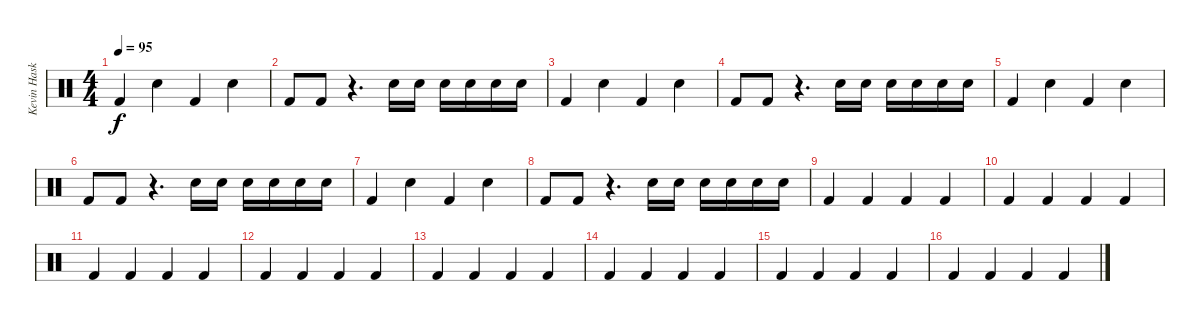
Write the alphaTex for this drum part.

\track ("Kevin Haskins" "Kevin Hask") {instrument percussion}
\staff {score}
\articulation defaults
\ts (4 4)
\tempo 95
\clef neutral
\ks c "Kick (hit) 2".4{dy f} "Electric Snare (hit)".4 "Kick (hit) 2".4 "Electric Snare (hit)".4
|
"Kick (hit) 2".8 "Kick (hit) 2".8 r.4{d} "Electric Snare (hit)".16 "Electric Snare (hit)".16 "Electric Snare (hit)".16 "Electric Snare (hit)".16 "Electric Snare (hit)".16 "Electric Snare (hit)".16 |
"Kick (hit) 2".4 "Electric Snare (hit)".4 "Kick (hit) 2".4 "Electric Snare (hit)".4 |
"Kick (hit) 2".8 "Kick (hit) 2".8 r.4{d} "Electric Snare (hit)".16 "Electric Snare (hit)".16 "Electric Snare (hit)".16 "Electric Snare (hit)".16 "Electric Snare (hit)".16 "Electric Snare (hit)".16 |
"Kick (hit) 2".4 "Electric Snare (hit)".4 "Kick (hit) 2".4 "Electric Snare (hit)".4 |
"Kick (hit) 2".8 "Kick (hit) 2".8 r.4{d} "Electric Snare (hit)".16 "Electric Snare (hit)".16 "Electric Snare (hit)".16 "Electric Snare (hit)".16 "Electric Snare (hit)".16 "Electric Snare (hit)".16 |
"Kick (hit) 2".4 "Electric Snare (hit)".4 "Kick (hit) 2".4 "Electric Snare (hit)".4 |
"Kick (hit) 2".8 "Kick (hit) 2".8 r.4{d} "Electric Snare (hit)".16 "Electric Snare (hit)".16 "Electric Snare (hit)".16 "Electric Snare (hit)".16 "Electric Snare (hit)".16 "Electric Snare (hit)".16 |
"Kick (hit) 2".4 "Kick (hit) 2".4 "Kick (hit) 2".4 "Kick (hit) 2".4 |
"Kick (hit) 2".4 "Kick (hit) 2".4 "Kick (hit) 2".4 "Kick (hit) 2".4 |
"Kick (hit) 2".4 "Kick (hit) 2".4 "Kick (hit) 2".4 "Kick (hit) 2".4 |
"Kick (hit) 2".4 "Kick (hit) 2".4 "Kick (hit) 2".4 "Kick (hit) 2".4 |
"Kick (hit) 2".4 "Kick (hit) 2".4 "Kick (hit) 2".4 "Kick (hit) 2".4 |
"Kick (hit) 2".4 "Kick (hit) 2".4 "Kick (hit) 2".4 "Kick (hit) 2".4 |
"Kick (hit) 2".4 "Kick (hit) 2".4 "Kick (hit) 2".4 "Kick (hit) 2".4 |
"Kick (hit) 2".4 "Kick (hit) 2".4 "Kick (hit) 2".4 "Kick (hit) 2".4
